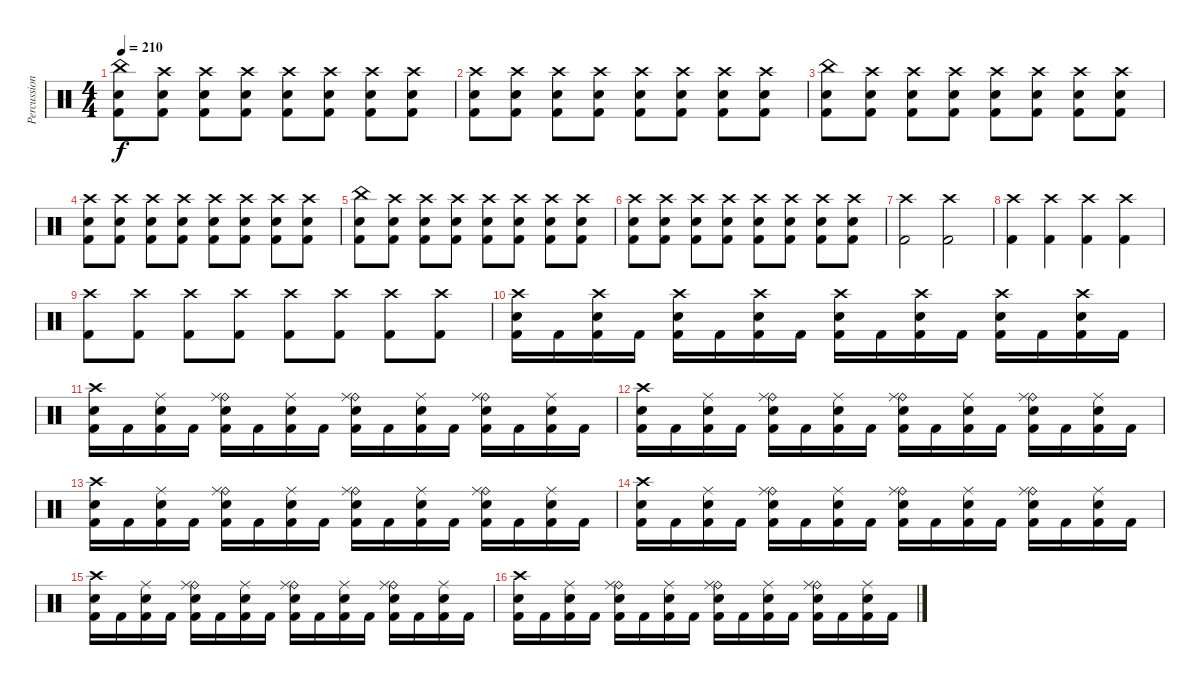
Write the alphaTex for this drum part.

\track ("Percussion" "Percussion") {instrument percussion}
\staff {score}
\articulation defaults
\ts (4 4)
\tempo 210
\clef neutral
\ks c
("China (hit)" "Snare (hit) 2" "Kick (hit) 2").8{dy f} ("Crash high (hit)" "Snare (hit) 2" "Kick (hit) 2").8 ("Crash high (hit)" "Snare (hit) 2" "Kick (hit) 2").8 ("Crash high (hit)" "Snare (hit) 2" "Kick (hit) 2").8 ("Crash high (hit)" "Snare (hit) 2" "Kick (hit) 2").8 ("Crash high (hit)" "Snare (hit) 2" "Kick (hit) 2").8 ("Crash high (hit)" "Snare (hit) 2" "Kick (hit) 2").8 ("Crash high (hit)" "Snare (hit) 2" "Kick (hit) 2").8 |
("Crash high (hit)" "Snare (hit) 2" "Kick (hit) 2").8 ("Crash high (hit)" "Snare (hit) 2" "Kick (hit) 2").8 ("Crash high (hit)" "Snare (hit) 2" "Kick (hit) 2").8 ("Crash high (hit)" "Snare (hit) 2" "Kick (hit) 2").8 ("Crash high (hit)" "Snare (hit) 2" "Kick (hit) 2").8 ("Crash high (hit)" "Snare (hit) 2" "Kick (hit) 2").8 ("Crash high (hit)" "Snare (hit) 2" "Kick (hit) 2").8 ("Crash high (hit)" "Snare (hit) 2" "Kick (hit) 2").8 |
("China (hit)" "Snare (hit) 2" "Kick (hit) 2").8 ("Crash high (hit)" "Snare (hit) 2" "Kick (hit) 2").8 ("Crash high (hit)" "Snare (hit) 2" "Kick (hit) 2").8 ("Crash high (hit)" "Snare (hit) 2" "Kick (hit) 2").8 ("Crash high (hit)" "Snare (hit) 2" "Kick (hit) 2").8 ("Crash high (hit)" "Snare (hit) 2" "Kick (hit) 2").8 ("Crash high (hit)" "Snare (hit) 2" "Kick (hit) 2").8 ("Crash high (hit)" "Snare (hit) 2" "Kick (hit) 2").8 |
("Crash high (hit)" "Snare (hit) 2" "Kick (hit) 2").8 ("Crash high (hit)" "Snare (hit) 2" "Kick (hit) 2").8 ("Crash high (hit)" "Snare (hit) 2" "Kick (hit) 2").8 ("Crash high (hit)" "Snare (hit) 2" "Kick (hit) 2").8 ("Crash high (hit)" "Snare (hit) 2" "Kick (hit) 2").8 ("Crash high (hit)" "Snare (hit) 2" "Kick (hit) 2").8 ("Crash high (hit)" "Snare (hit) 2" "Kick (hit) 2").8 ("Crash high (hit)" "Snare (hit) 2" "Kick (hit) 2").8 |
("China (hit)" "Snare (hit) 2" "Kick (hit) 2").8 ("Crash high (hit)" "Snare (hit) 2" "Kick (hit) 2").8 ("Crash high (hit)" "Snare (hit) 2" "Kick (hit) 2").8 ("Crash high (hit)" "Snare (hit) 2" "Kick (hit) 2").8 ("Crash high (hit)" "Snare (hit) 2" "Kick (hit) 2").8 ("Crash high (hit)" "Snare (hit) 2" "Kick (hit) 2").8 ("Crash high (hit)" "Snare (hit) 2" "Kick (hit) 2").8 ("Crash high (hit)" "Snare (hit) 2" "Kick (hit) 2").8 |
("Crash high (hit)" "Snare (hit) 2" "Kick (hit) 2").8 ("Crash high (hit)" "Snare (hit) 2" "Kick (hit) 2").8 ("Crash high (hit)" "Snare (hit) 2" "Kick (hit) 2").8 ("Crash high (hit)" "Snare (hit) 2" "Kick (hit) 2").8 ("Crash high (hit)" "Snare (hit) 2" "Kick (hit) 2").8 ("Crash high (hit)" "Snare (hit) 2" "Kick (hit) 2").8 ("Crash high (hit)" "Snare (hit) 2" "Kick (hit) 2").8 ("Crash high (hit)" "Snare (hit) 2" "Kick (hit) 2").8 |
("Crash high (hit)" "Kick (hit) 2").2 ("Crash high (hit)" "Kick (hit) 2").2 |
("Crash high (hit)" "Kick (hit) 2").4 ("Crash high (hit)" "Kick (hit) 2").4 ("Crash high (hit)" "Kick (hit) 2").4 ("Crash high (hit)" "Kick (hit) 2").4 |
("Crash high (hit)" "Kick (hit) 2").8 ("Crash high (hit)" "Kick (hit) 2").8 ("Crash high (hit)" "Kick (hit) 2").8 ("Crash high (hit)" "Kick (hit) 2").8 ("Crash high (hit)" "Kick (hit) 2").8 ("Crash high (hit)" "Kick (hit) 2").8 ("Crash high (hit)" "Kick (hit) 2").8 ("Crash high (hit)" "Kick (hit) 2").8 |
("Crash high (hit)" "Snare (hit) 2" "Kick (hit) 2").16 "Kick (hit) 2".16 ("Crash high (hit)" "Snare (hit) 2" "Kick (hit) 2").16 "Kick (hit) 2".16 ("Crash high (hit)" "Snare (hit) 2" "Kick (hit) 2").16 "Kick (hit) 2".16 ("Crash high (hit)" "Snare (hit) 2" "Kick (hit) 2").16 "Kick (hit) 2".16 ("Crash high (hit)" "Snare (hit) 2" "Kick (hit) 2").16 "Kick (hit) 2".16 ("Crash high (hit)" "Snare (hit) 2" "Kick (hit) 2").16 "Kick (hit) 2".16 ("Crash high (hit)" "Snare (hit) 2" "Kick (hit) 2").16 "Kick (hit) 2".16 ("Crash high (hit)" "Snare (hit) 2" "Kick (hit) 2").16 "Kick (hit) 2".16 |
("Crash high (hit)" "Snare (hit) 2" "Kick (hit) 2").16 "Kick (hit) 2".16 ("Ride (middle)" "Snare (hit) 2" "Kick (hit) 2").16 "Kick (hit) 2".16 ("Ride (bell)" "Ride (middle)" "Snare (hit) 2" "Kick (hit) 2").16 "Kick (hit) 2".16 ("Ride (middle)" "Snare (hit) 2" "Kick (hit) 2").16 "Kick (hit) 2".16 ("Ride (bell)" "Ride (middle)" "Snare (hit) 2" "Kick (hit) 2").16 "Kick (hit) 2".16 ("Ride (middle)" "Snare (hit) 2" "Kick (hit) 2").16 "Kick (hit) 2".16 ("Ride (bell)" "Ride (middle)" "Snare (hit) 2" "Kick (hit) 2").16 "Kick (hit) 2".16 ("Ride (middle)" "Snare (hit) 2" "Kick (hit) 2").16 "Kick (hit) 2".16 |
("Crash high (hit)" "Snare (hit) 2" "Kick (hit) 2").16 "Kick (hit) 2".16 ("Ride (middle)" "Snare (hit) 2" "Kick (hit) 2").16 "Kick (hit) 2".16 ("Ride (bell)" "Ride (middle)" "Snare (hit) 2" "Kick (hit) 2").16 "Kick (hit) 2".16 ("Ride (middle)" "Snare (hit) 2" "Kick (hit) 2").16 "Kick (hit) 2".16 ("Ride (bell)" "Ride (middle)" "Snare (hit) 2" "Kick (hit) 2").16 "Kick (hit) 2".16 ("Ride (middle)" "Snare (hit) 2" "Kick (hit) 2").16 "Kick (hit) 2".16 ("Ride (bell)" "Ride (middle)" "Snare (hit) 2" "Kick (hit) 2").16 "Kick (hit) 2".16 ("Ride (middle)" "Snare (hit) 2" "Kick (hit) 2").16 "Kick (hit) 2".16 |
("Crash high (hit)" "Snare (hit) 2" "Kick (hit) 2").16 "Kick (hit) 2".16 ("Ride (middle)" "Snare (hit) 2" "Kick (hit) 2").16 "Kick (hit) 2".16 ("Ride (bell)" "Ride (middle)" "Snare (hit) 2" "Kick (hit) 2").16 "Kick (hit) 2".16 ("Ride (middle)" "Snare (hit) 2" "Kick (hit) 2").16 "Kick (hit) 2".16 ("Ride (bell)" "Ride (middle)" "Snare (hit) 2" "Kick (hit) 2").16 "Kick (hit) 2".16 ("Ride (middle)" "Snare (hit) 2" "Kick (hit) 2").16 "Kick (hit) 2".16 ("Ride (bell)" "Ride (middle)" "Snare (hit) 2" "Kick (hit) 2").16 "Kick (hit) 2".16 ("Ride (middle)" "Snare (hit) 2" "Kick (hit) 2").16 "Kick (hit) 2".16 |
("Crash high (hit)" "Snare (hit) 2" "Kick (hit) 2").16 "Kick (hit) 2".16 ("Ride (middle)" "Snare (hit) 2" "Kick (hit) 2").16 "Kick (hit) 2".16 ("Ride (bell)" "Ride (middle)" "Snare (hit) 2" "Kick (hit) 2").16 "Kick (hit) 2".16 ("Ride (middle)" "Snare (hit) 2" "Kick (hit) 2").16 "Kick (hit) 2".16 ("Ride (bell)" "Ride (middle)" "Snare (hit) 2" "Kick (hit) 2").16 "Kick (hit) 2".16 ("Ride (middle)" "Snare (hit) 2" "Kick (hit) 2").16 "Kick (hit) 2".16 ("Ride (bell)" "Ride (middle)" "Snare (hit) 2" "Kick (hit) 2").16 "Kick (hit) 2".16 ("Ride (middle)" "Snare (hit) 2" "Kick (hit) 2").16 "Kick (hit) 2".16 |
("Crash high (hit)" "Snare (hit) 2" "Kick (hit) 2").16 "Kick (hit) 2".16 ("Ride (middle)" "Snare (hit) 2" "Kick (hit) 2").16 "Kick (hit) 2".16 ("Ride (bell)" "Ride (middle)" "Snare (hit) 2" "Kick (hit) 2").16 "Kick (hit) 2".16 ("Ride (middle)" "Snare (hit) 2" "Kick (hit) 2").16 "Kick (hit) 2".16 ("Ride (bell)" "Ride (middle)" "Snare (hit) 2" "Kick (hit) 2").16 "Kick (hit) 2".16 ("Ride (middle)" "Snare (hit) 2" "Kick (hit) 2").16 "Kick (hit) 2".16 ("Ride (bell)" "Ride (middle)" "Snare (hit) 2" "Kick (hit) 2").16 "Kick (hit) 2".16 ("Ride (middle)" "Snare (hit) 2" "Kick (hit) 2").16 "Kick (hit) 2".16 |
("Crash high (hit)" "Snare (hit) 2" "Kick (hit) 2").16 "Kick (hit) 2".16 ("Ride (middle)" "Snare (hit) 2" "Kick (hit) 2").16 "Kick (hit) 2".16 ("Ride (bell)" "Ride (middle)" "Snare (hit) 2" "Kick (hit) 2").16 "Kick (hit) 2".16 ("Ride (middle)" "Snare (hit) 2" "Kick (hit) 2").16 "Kick (hit) 2".16 ("Ride (bell)" "Ride (middle)" "Snare (hit) 2" "Kick (hit) 2").16 "Kick (hit) 2".16 ("Ride (middle)" "Snare (hit) 2" "Kick (hit) 2").16 "Kick (hit) 2".16 ("Ride (bell)" "Ride (middle)" "Snare (hit) 2" "Kick (hit) 2").16 "Kick (hit) 2".16 ("Ride (middle)" "Snare (hit) 2" "Kick (hit) 2").16 "Kick (hit) 2".16
